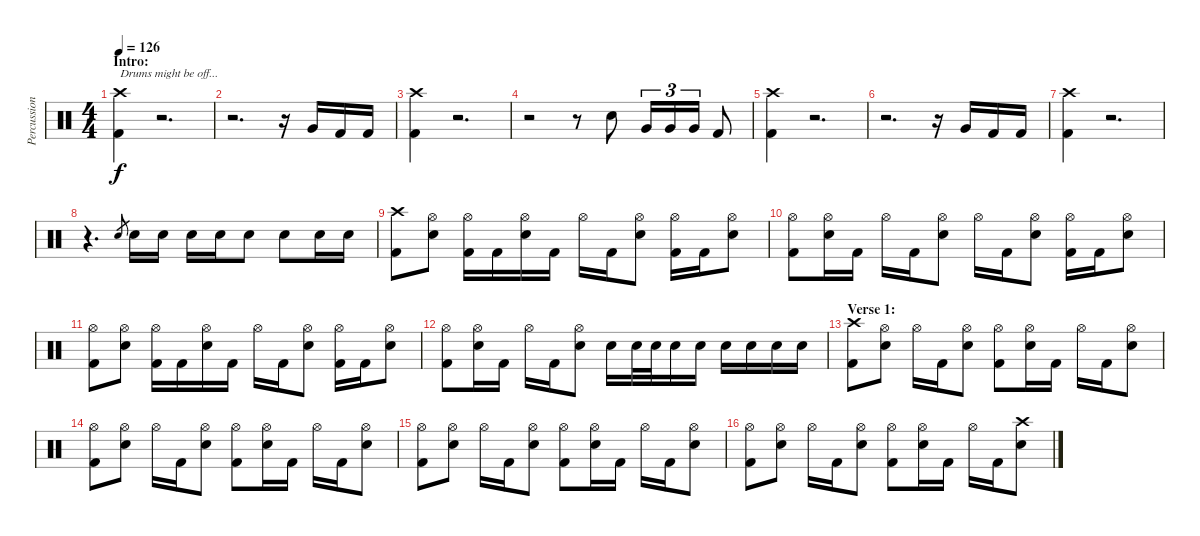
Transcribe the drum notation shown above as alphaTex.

\track ("Percussion" "Percussion") {instrument percussion}
\staff {score}
\articulation defaults
\ts (4 4)
\section ("" "Intro:")
\tempo 126
\clef neutral
\ks c
("Crash high (hit)" "Kick (hit) 2").4{txt "Drums might be off..." dy f} r.2{d} |
r.2{d} r.16 "Very Low Tom (hit)".16 "Kick (hit) 2".16 "Kick (hit) 2".16 |
("Crash high (hit)" "Kick (hit) 2").4 r.2{d} |
r.2 r.8 "Snare (hit) 2".8 "Very Low Tom (hit)".16{tu (3 2)} "Very Low Tom (hit)".16{tu (3 2)} "Very Low Tom (hit)".16{tu (3 2)} "Kick (hit) 2".8 |
("Crash high (hit)" "Kick (hit) 2").4 r.2{d} |
r.2{d} r.16 "Very Low Tom (hit)".16 "Kick (hit) 2".16 "Kick (hit) 2".16 |
("Crash high (hit)" "Kick (hit) 2").4 r.2{d} |
r.4{d} "Snare (hit) 2".8{gr} "Snare (hit) 2".16 "Snare (hit) 2".16 "Snare (hit) 2".16 "Snare (hit) 2".16 "Snare (hit) 2".8 "Snare (hit) 2".8 "Snare (hit) 2".16 "Snare (hit) 2".16 |
("Crash high (hit)" "Kick (hit) 2").8 ("Hi-Hat (open)" "Snare (hit) 2").8 ("Hi-Hat (open)" "Kick (hit) 2").16 "Kick (hit) 2".16 ("Hi-Hat (open)" "Snare (hit) 2").16 "Kick (hit) 2".16 "Hi-Hat (open)".16 "Kick (hit) 2".16 ("Hi-Hat (open)" "Snare (hit) 2").8 ("Hi-Hat (open)" "Kick (hit) 2").16 "Kick (hit) 2".16 ("Hi-Hat (open)" "Snare (hit) 2").8 |
("Hi-Hat (open)" "Kick (hit) 2").8 ("Hi-Hat (open)" "Snare (hit) 2").16 "Kick (hit) 2".16 "Hi-Hat (open)".16 "Kick (hit) 2".16 ("Hi-Hat (open)" "Snare (hit) 2").8 "Hi-Hat (open)".16 "Kick (hit) 2".16 ("Hi-Hat (open)" "Snare (hit) 2").8 ("Hi-Hat (open)" "Kick (hit) 2").16 "Kick (hit) 2".16 ("Hi-Hat (open)" "Snare (hit) 2").8 |
("Hi-Hat (open)" "Kick (hit) 2").8 ("Hi-Hat (open)" "Snare (hit) 2").8 ("Hi-Hat (open)" "Kick (hit) 2").16 "Kick (hit) 2".16 ("Hi-Hat (open)" "Snare (hit) 2").16 "Kick (hit) 2".16 "Hi-Hat (open)".16 "Kick (hit) 2".16 ("Hi-Hat (open)" "Snare (hit) 2").8 ("Hi-Hat (open)" "Kick (hit) 2").16 "Kick (hit) 2".16 ("Hi-Hat (open)" "Snare (hit) 2").8 |
("Hi-Hat (open)" "Kick (hit) 2").8 ("Hi-Hat (open)" "Snare (hit) 2").16 "Kick (hit) 2".16 "Hi-Hat (open)".16 "Kick (hit) 2".16 ("Hi-Hat (open)" "Snare (hit) 2").8 "Snare (hit) 2".16 "Snare (hit) 2".32 "Snare (hit) 2".32 "Snare (hit) 2".16 "Snare (hit) 2".16 "Snare (hit) 2".16 "Snare (hit) 2".16 "Snare (hit) 2".16 "Snare (hit) 2".16 |
\section ("" "Verse 1:")
("Crash high (hit)" "Kick (hit) 2").8 ("Hi-Hat (open)" "Snare (hit) 2").8 "Hi-Hat (open)".16 "Kick (hit) 2".16 ("Hi-Hat (open)" "Snare (hit) 2").8 ("Hi-Hat (open)" "Kick (hit) 2").8 ("Hi-Hat (open)" "Snare (hit) 2").16 "Kick (hit) 2".16 "Hi-Hat (open)".16 "Kick (hit) 2".16 ("Hi-Hat (open)" "Snare (hit) 2").8 |
("Hi-Hat (open)" "Kick (hit) 2").8 ("Hi-Hat (open)" "Snare (hit) 2").8 "Hi-Hat (open)".16 "Kick (hit) 2".16 ("Hi-Hat (open)" "Snare (hit) 2").8 ("Hi-Hat (open)" "Kick (hit) 2").8 ("Hi-Hat (open)" "Snare (hit) 2").16 "Kick (hit) 2".16 "Hi-Hat (open)".16 "Kick (hit) 2".16 ("Hi-Hat (open)" "Snare (hit) 2").8 |
("Hi-Hat (open)" "Kick (hit) 2").8 ("Hi-Hat (open)" "Snare (hit) 2").8 "Hi-Hat (open)".16 "Kick (hit) 2".16 ("Hi-Hat (open)" "Snare (hit) 2").8 ("Hi-Hat (open)" "Kick (hit) 2").8 ("Hi-Hat (open)" "Snare (hit) 2").16 "Kick (hit) 2".16 "Hi-Hat (open)".16 "Kick (hit) 2".16 ("Hi-Hat (open)" "Snare (hit) 2").8 |
("Hi-Hat (open)" "Kick (hit) 2").8 ("Hi-Hat (open)" "Snare (hit) 2").8 "Hi-Hat (open)".16 "Kick (hit) 2".16 ("Hi-Hat (open)" "Snare (hit) 2").8 ("Hi-Hat (open)" "Kick (hit) 2").8 ("Hi-Hat (open)" "Snare (hit) 2").16 "Kick (hit) 2".16 "Hi-Hat (open)".16 "Kick (hit) 2".16 ("Crash high (hit)" "Snare (hit) 2").8
